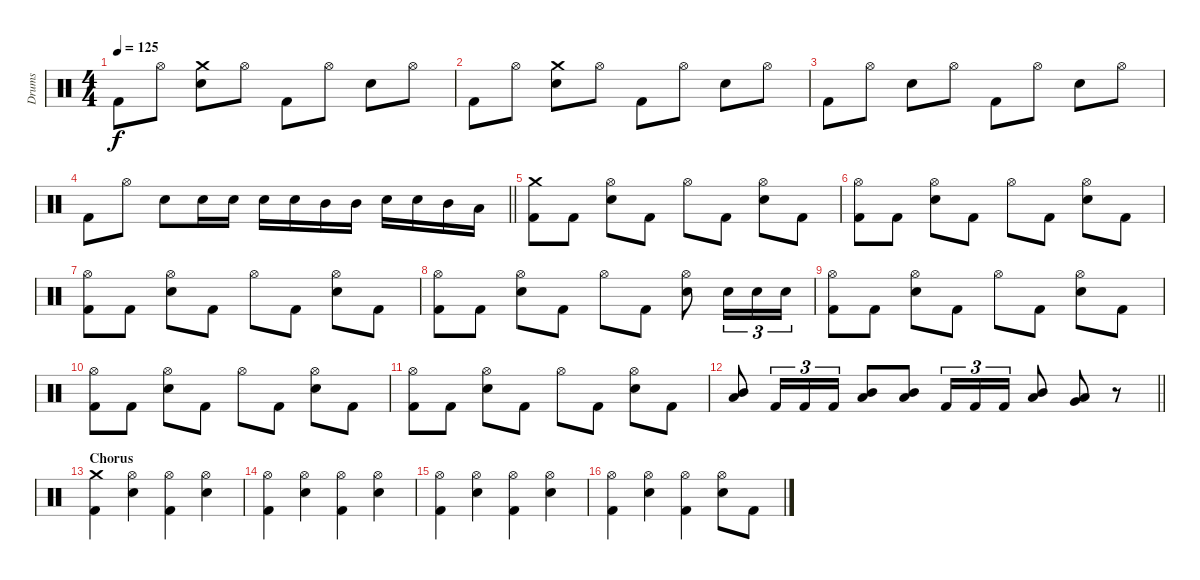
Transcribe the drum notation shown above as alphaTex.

\track ("Drums" "Drums") {instrument percussion}
\staff {score}
\articulation defaults
\ts (4 4)
\tempo 125
\clef neutral
\ks c "Kick (hit) 2".8{dy f} "Hi-Hat (open)".8
("Crash medium (hit)" "Electric Snare (hit)").8 "Hi-Hat (open)".8 "Kick (hit) 2".8 "Hi-Hat (open)".8 "Electric Snare (hit)".8 "Hi-Hat (open)".8 |
"Kick (hit) 2".8 "Hi-Hat (open)".8 ("Crash medium (hit)" "Electric Snare (hit)").8 "Hi-Hat (open)".8 "Kick (hit) 2".8 "Hi-Hat (open)".8 "Electric Snare (hit)".8 "Hi-Hat (open)".8 |
"Kick (hit) 2".8 "Hi-Hat (open)".8 "Electric Snare (hit)".8 "Hi-Hat (open)".8 "Kick (hit) 2".8 "Hi-Hat (open)".8 "Electric Snare (hit)".8 "Hi-Hat (open)".8 |
\barLineRight lightlight "Kick (hit) 2".8 "Hi-Hat (open)".8 "Electric Snare (hit)".8 "Electric Snare (hit)".16 "Electric Snare (hit)".16 "Electric Snare (hit)".16 "Electric Snare (hit)".16 "Mid Tom (hit)".16 "Mid Tom (hit)".16 "Electric Snare (hit)".16 "Electric Snare (hit)".16 "Mid Tom (hit)".16 "Low Tom (hit)".16
|
("Crash medium (hit)" "Kick (hit) 2").8 "Kick (hit) 2".8 ("Hi-Hat (open)" "Electric Snare (hit)").8 "Kick (hit) 2".8 "Hi-Hat (open)".8 "Kick (hit) 2".8 ("Hi-Hat (open)" "Electric Snare (hit)").8 "Kick (hit) 2".8 |
("Hi-Hat (open)" "Kick (hit) 2").8 "Kick (hit) 2".8 ("Hi-Hat (open)" "Electric Snare (hit)").8 "Kick (hit) 2".8 "Hi-Hat (open)".8 "Kick (hit) 2".8 ("Hi-Hat (open)" "Electric Snare (hit)").8 "Kick (hit) 2".8 |
("Hi-Hat (open)" "Kick (hit) 2").8 "Kick (hit) 2".8 ("Hi-Hat (open)" "Electric Snare (hit)").8 "Kick (hit) 2".8 "Hi-Hat (open)".8 "Kick (hit) 2".8 ("Hi-Hat (open)" "Electric Snare (hit)").8 "Kick (hit) 2".8 |
("Hi-Hat (open)" "Kick (hit) 2").8 "Kick (hit) 2".8 ("Hi-Hat (open)" "Electric Snare (hit)").8 "Kick (hit) 2".8 "Hi-Hat (open)".8 "Kick (hit) 2".8 ("Hi-Hat (open)" "Electric Snare (hit)").8 "Electric Snare (hit)".16{tu (3 2)} "Electric Snare (hit)".16{tu (3 2)} "Electric Snare (hit)".16{tu (3 2)} |
("Hi-Hat (open)" "Kick (hit) 2").8 "Kick (hit) 2".8 ("Hi-Hat (open)" "Electric Snare (hit)").8 "Kick (hit) 2".8 "Hi-Hat (open)".8 "Kick (hit) 2".8 ("Hi-Hat (open)" "Electric Snare (hit)").8 "Kick (hit) 2".8 |
("Hi-Hat (open)" "Kick (hit) 2").8 "Kick (hit) 2".8 ("Hi-Hat (open)" "Electric Snare (hit)").8 "Kick (hit) 2".8 "Hi-Hat (open)".8 "Kick (hit) 2".8 ("Hi-Hat (open)" "Electric Snare (hit)").8 "Kick (hit) 2".8 |
("Hi-Hat (open)" "Kick (hit) 2").8 "Kick (hit) 2".8 ("Hi-Hat (open)" "Electric Snare (hit)").8 "Kick (hit) 2".8 "Hi-Hat (open)".8 "Kick (hit) 2".8 ("Hi-Hat (open)" "Electric Snare (hit)").8 "Kick (hit) 2".8 |
\barLineRight lightlight
("Mid Tom (hit)" "Low Tom (hit)").8 "Kick (hit) 2".16{tu (3 2)} "Kick (hit) 2".16{tu (3 2)} "Kick (hit) 2".16{tu (3 2)} ("Mid Tom (hit)" "Low Tom (hit)").8 ("Mid Tom (hit)" "Low Tom (hit)").8 "Kick (hit) 2".16{tu (3 2)} "Kick (hit) 2".16{tu (3 2)} "Kick (hit) 2".16{tu (3 2)} ("Mid Tom (hit)" "Low Tom (hit)").8 ("Low Tom (hit)" "Very Low Tom (hit)").8 r.8 |
\section ("" "Chorus")
("Crash medium (hit)" "Kick (hit) 2").4 ("Hi-Hat (open)" "Electric Snare (hit)").4 ("Hi-Hat (open)" "Kick (hit) 2").4 ("Hi-Hat (open)" "Electric Snare (hit)").4 |
("Hi-Hat (open)" "Kick (hit) 2").4 ("Hi-Hat (open)" "Electric Snare (hit)").4 ("Hi-Hat (open)" "Kick (hit) 2").4 ("Hi-Hat (open)" "Electric Snare (hit)").4 |
("Hi-Hat (open)" "Kick (hit) 2").4 ("Hi-Hat (open)" "Electric Snare (hit)").4 ("Hi-Hat (open)" "Kick (hit) 2").4 ("Hi-Hat (open)" "Electric Snare (hit)").4 |
("Hi-Hat (open)" "Kick (hit) 2").4 ("Hi-Hat (open)" "Electric Snare (hit)").4 ("Hi-Hat (open)" "Kick (hit) 2").4 ("Hi-Hat (open)" "Electric Snare (hit)").8 "Kick (hit) 2".8
